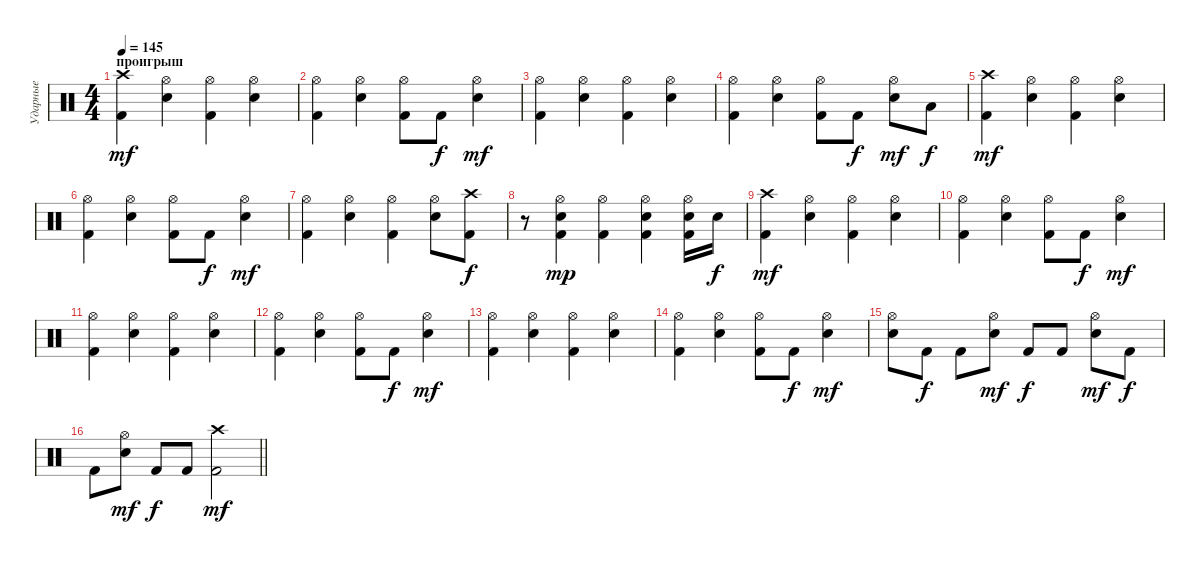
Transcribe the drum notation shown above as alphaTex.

\track ("Ударные" "Ударные") {instrument percussion}
\staff {score}
\articulation defaults
\ts (4 4)
\section ("" "проигрыш")
\tempo 145
\clef neutral
\ks c
("Kick (hit) 2" "Crash high (hit)").4{dy mf} ("Snare (hit) 2" "Hi-Hat (open)").4 ("Kick (hit) 2" "Hi-Hat (open)").4 ("Snare (hit) 2" "Hi-Hat (open)").4 |
("Kick (hit) 2" "Hi-Hat (open)").4 ("Snare (hit) 2" "Hi-Hat (open)").4 ("Kick (hit) 2" "Hi-Hat (open)").8 "Kick (hit) 2".8{dy f} ("Snare (hit) 2" "Hi-Hat (open)").4{dy mf} |
("Kick (hit) 2" "Hi-Hat (open)").4 ("Snare (hit) 2" "Hi-Hat (open)").4 ("Kick (hit) 2" "Hi-Hat (open)").4 ("Snare (hit) 2" "Hi-Hat (open)").4 |
("Kick (hit) 2" "Hi-Hat (open)").4 ("Snare (hit) 2" "Hi-Hat (open)").4 ("Kick (hit) 2" "Hi-Hat (open)").8 "Kick (hit) 2".8{dy f} ("Snare (hit) 2" "Hi-Hat (open)").8{dy mf} "Low Floor Tom (hit)".8{dy f} |
("Kick (hit) 2" "Crash high (hit)").4{dy mf} ("Snare (hit) 2" "Hi-Hat (open)").4 ("Kick (hit) 2" "Hi-Hat (open)").4 ("Snare (hit) 2" "Hi-Hat (open)").4 |
("Kick (hit) 2" "Hi-Hat (open)").4 ("Snare (hit) 2" "Hi-Hat (open)").4 ("Kick (hit) 2" "Hi-Hat (open)").8 "Kick (hit) 2".8{dy f} ("Snare (hit) 2" "Hi-Hat (open)").4{dy mf} |
("Kick (hit) 2" "Hi-Hat (open)").4 ("Snare (hit) 2" "Hi-Hat (open)").4 ("Kick (hit) 2" "Hi-Hat (open)").4 ("Snare (hit) 2" "Hi-Hat (open)").8 ("Kick (hit) 2" "Crash high (hit)").8{dy f} |
r.8 ("Kick (hit) 2" "Snare (hit) 2" "Hi-Hat (open)").4{dy mp} ("Kick (hit) 2" "Hi-Hat (open)").4 ("Kick (hit) 2" "Snare (hit) 2" "Hi-Hat (open)").4 ("Kick (hit) 2" "Snare (hit) 2" "Hi-Hat (open)").16 "Snare (hit) 2".16{dy f} |
("Kick (hit) 2" "Crash high (hit)").4{dy mf} ("Snare (hit) 2" "Hi-Hat (open)").4 ("Kick (hit) 2" "Hi-Hat (open)").4 ("Snare (hit) 2" "Hi-Hat (open)").4 |
("Kick (hit) 2" "Hi-Hat (open)").4 ("Snare (hit) 2" "Hi-Hat (open)").4 ("Kick (hit) 2" "Hi-Hat (open)").8 "Kick (hit) 2".8{dy f} ("Snare (hit) 2" "Hi-Hat (open)").4{dy mf} |
("Kick (hit) 2" "Hi-Hat (open)").4 ("Snare (hit) 2" "Hi-Hat (open)").4 ("Kick (hit) 2" "Hi-Hat (open)").4 ("Snare (hit) 2" "Hi-Hat (open)").4 |
("Kick (hit) 2" "Hi-Hat (open)").4 ("Snare (hit) 2" "Hi-Hat (open)").4 ("Kick (hit) 2" "Hi-Hat (open)").8 "Kick (hit) 2".8{dy f} ("Snare (hit) 2" "Hi-Hat (open)").4{dy mf} |
("Kick (hit) 2" "Hi-Hat (open)").4 ("Snare (hit) 2" "Hi-Hat (open)").4 ("Kick (hit) 2" "Hi-Hat (open)").4 ("Snare (hit) 2" "Hi-Hat (open)").4 |
("Kick (hit) 2" "Hi-Hat (open)").4 ("Snare (hit) 2" "Hi-Hat (open)").4 ("Kick (hit) 2" "Hi-Hat (open)").8 "Kick (hit) 2".8{dy f} ("Snare (hit) 2" "Hi-Hat (open)").4{dy mf} |
("Snare (hit) 2" "Hi-Hat (open)").8 "Kick (hit) 2".8{dy f} "Kick (hit) 2".8 ("Snare (hit) 2" "Hi-Hat (open)").8{dy mf} "Kick (hit) 2".8{dy f} "Kick (hit) 2".8 ("Snare (hit) 2" "Hi-Hat (open)").8{dy mf} "Kick (hit) 2".8{dy f} |
\barLineRight lightlight "Kick (hit) 2".8
("Snare (hit) 2" "Hi-Hat (open)").8{dy mf} "Kick (hit) 2".8{dy f} "Kick (hit) 2".8 ("Kick (hit) 2" "Crash high (hit)").2{dy mf}
